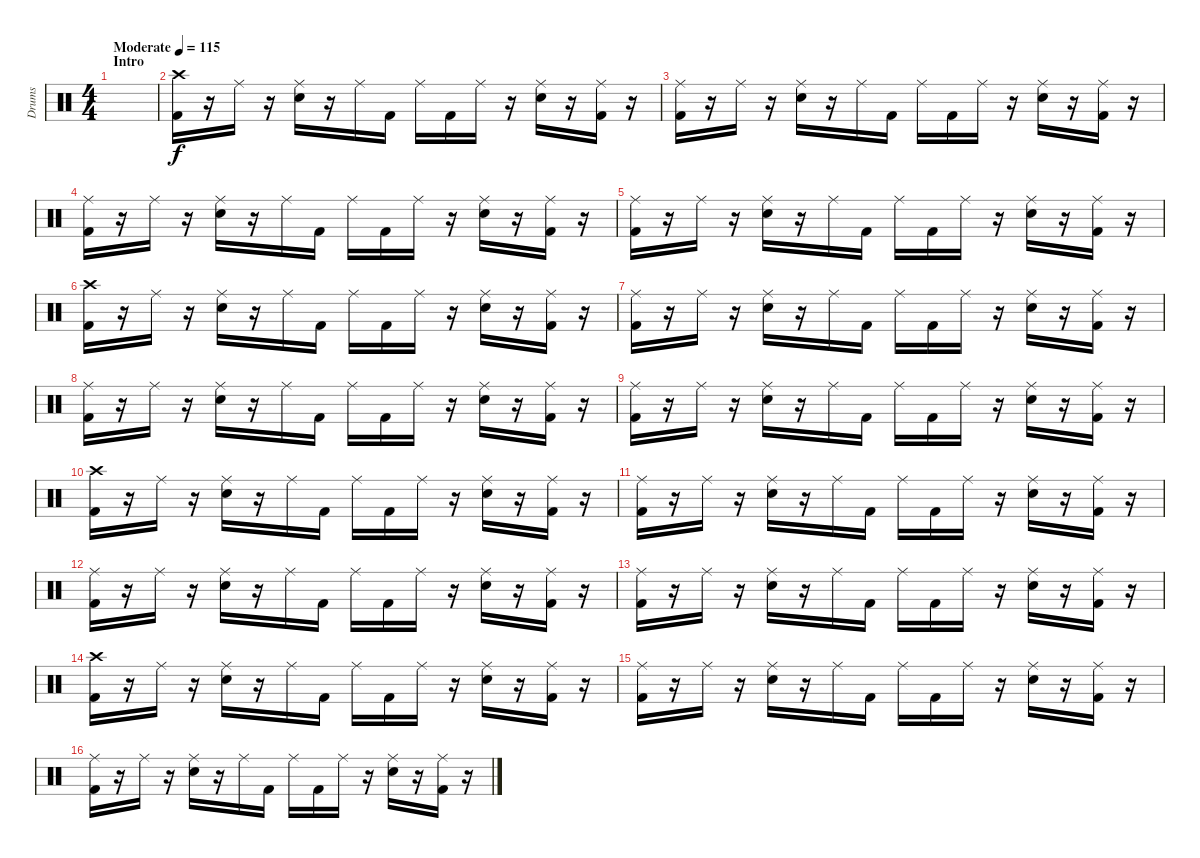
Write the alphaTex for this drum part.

\track ("Drums" "Drums") {instrument percussion}
\staff {score}
\articulation defaults
\ts (4 4)
\section ("" "Intro")
\tempo (115 "Moderate")
\clef neutral
\ks c
|
("Crash high (hit)" "Kick (hit) 2").16 r.16 "Ride (middle)".16 r.16 ("Ride (middle)" "Snare (hit) 2").16 r.16 "Ride (middle)".16 "Kick (hit) 2".16 "Ride (middle)".16 "Kick (hit) 2".16 "Ride (middle)".16 r.16 ("Ride (middle)" "Snare (hit) 2").16 r.16 ("Ride (middle)" "Kick (hit) 2").16 r.16 |
("Ride (middle)" "Kick (hit) 2").16 r.16 "Ride (middle)".16 r.16 ("Ride (middle)" "Snare (hit) 2").16 r.16 "Ride (middle)".16 "Kick (hit) 2".16 "Ride (middle)".16 "Kick (hit) 2".16 "Ride (middle)".16 r.16 ("Ride (middle)" "Snare (hit) 2").16 r.16 ("Ride (middle)" "Kick (hit) 2").16 r.16 |
("Ride (middle)" "Kick (hit) 2").16 r.16 "Ride (middle)".16 r.16 ("Ride (middle)" "Snare (hit) 2").16 r.16 "Ride (middle)".16 "Kick (hit) 2".16 "Ride (middle)".16 "Kick (hit) 2".16 "Ride (middle)".16 r.16 ("Ride (middle)" "Snare (hit) 2").16 r.16 ("Ride (middle)" "Kick (hit) 2").16 r.16 |
("Ride (middle)" "Kick (hit) 2").16 r.16 "Ride (middle)".16 r.16 ("Ride (middle)" "Snare (hit) 2").16 r.16 "Ride (middle)".16 "Kick (hit) 2".16 "Ride (middle)".16 "Kick (hit) 2".16 "Ride (middle)".16 r.16 ("Ride (middle)" "Snare (hit) 2").16 r.16 ("Ride (middle)" "Kick (hit) 2").16 r.16 |
("Crash high (hit)" "Kick (hit) 2").16 r.16 "Ride (middle)".16 r.16 ("Ride (middle)" "Snare (hit) 2").16 r.16 "Ride (middle)".16 "Kick (hit) 2".16 "Ride (middle)".16 "Kick (hit) 2".16 "Ride (middle)".16 r.16 ("Ride (middle)" "Snare (hit) 2").16 r.16 ("Ride (middle)" "Kick (hit) 2").16 r.16 |
("Ride (middle)" "Kick (hit) 2").16 r.16 "Ride (middle)".16 r.16 ("Ride (middle)" "Snare (hit) 2").16 r.16 "Ride (middle)".16 "Kick (hit) 2".16 "Ride (middle)".16 "Kick (hit) 2".16 "Ride (middle)".16 r.16 ("Ride (middle)" "Snare (hit) 2").16 r.16 ("Ride (middle)" "Kick (hit) 2").16 r.16 |
("Ride (middle)" "Kick (hit) 2").16 r.16 "Ride (middle)".16 r.16 ("Ride (middle)" "Snare (hit) 2").16 r.16 "Ride (middle)".16 "Kick (hit) 2".16 "Ride (middle)".16 "Kick (hit) 2".16 "Ride (middle)".16 r.16 ("Ride (middle)" "Snare (hit) 2").16 r.16 ("Ride (middle)" "Kick (hit) 2").16 r.16 |
("Ride (middle)" "Kick (hit) 2").16 r.16 "Ride (middle)".16 r.16 ("Ride (middle)" "Snare (hit) 2").16 r.16 "Ride (middle)".16 "Kick (hit) 2".16 "Ride (middle)".16 "Kick (hit) 2".16 "Ride (middle)".16 r.16 ("Ride (middle)" "Snare (hit) 2").16 r.16 ("Ride (middle)" "Kick (hit) 2").16 r.16 |
("Crash high (hit)" "Kick (hit) 2").16 r.16 "Ride (middle)".16 r.16 ("Ride (middle)" "Snare (hit) 2").16 r.16 "Ride (middle)".16 "Kick (hit) 2".16 "Ride (middle)".16 "Kick (hit) 2".16 "Ride (middle)".16 r.16 ("Ride (middle)" "Snare (hit) 2").16 r.16 ("Ride (middle)" "Kick (hit) 2").16 r.16 |
("Ride (middle)" "Kick (hit) 2").16 r.16 "Ride (middle)".16 r.16 ("Ride (middle)" "Snare (hit) 2").16 r.16 "Ride (middle)".16 "Kick (hit) 2".16 "Ride (middle)".16 "Kick (hit) 2".16 "Ride (middle)".16 r.16 ("Ride (middle)" "Snare (hit) 2").16 r.16 ("Ride (middle)" "Kick (hit) 2").16 r.16 |
("Ride (middle)" "Kick (hit) 2").16 r.16 "Ride (middle)".16 r.16 ("Ride (middle)" "Snare (hit) 2").16 r.16 "Ride (middle)".16 "Kick (hit) 2".16 "Ride (middle)".16 "Kick (hit) 2".16 "Ride (middle)".16 r.16 ("Ride (middle)" "Snare (hit) 2").16 r.16 ("Ride (middle)" "Kick (hit) 2").16 r.16 |
("Ride (middle)" "Kick (hit) 2").16 r.16 "Ride (middle)".16 r.16 ("Ride (middle)" "Snare (hit) 2").16 r.16 "Ride (middle)".16 "Kick (hit) 2".16 "Ride (middle)".16 "Kick (hit) 2".16 "Ride (middle)".16 r.16 ("Ride (middle)" "Snare (hit) 2").16 r.16 ("Ride (middle)" "Kick (hit) 2").16 r.16 |
("Crash high (hit)" "Kick (hit) 2").16 r.16 "Ride (middle)".16 r.16 ("Ride (middle)" "Snare (hit) 2").16 r.16 "Ride (middle)".16 "Kick (hit) 2".16 "Ride (middle)".16 "Kick (hit) 2".16 "Ride (middle)".16 r.16 ("Ride (middle)" "Snare (hit) 2").16 r.16 ("Ride (middle)" "Kick (hit) 2").16 r.16 |
("Ride (middle)" "Kick (hit) 2").16 r.16 "Ride (middle)".16 r.16 ("Ride (middle)" "Snare (hit) 2").16 r.16 "Ride (middle)".16 "Kick (hit) 2".16 "Ride (middle)".16 "Kick (hit) 2".16 "Ride (middle)".16 r.16 ("Ride (middle)" "Snare (hit) 2").16 r.16 ("Ride (middle)" "Kick (hit) 2").16 r.16 |
("Ride (middle)" "Kick (hit) 2").16 r.16 "Ride (middle)".16 r.16 ("Ride (middle)" "Snare (hit) 2").16 r.16 "Ride (middle)".16 "Kick (hit) 2".16 "Ride (middle)".16 "Kick (hit) 2".16 "Ride (middle)".16 r.16 ("Ride (middle)" "Snare (hit) 2").16 r.16 ("Ride (middle)" "Kick (hit) 2").16 r.16
